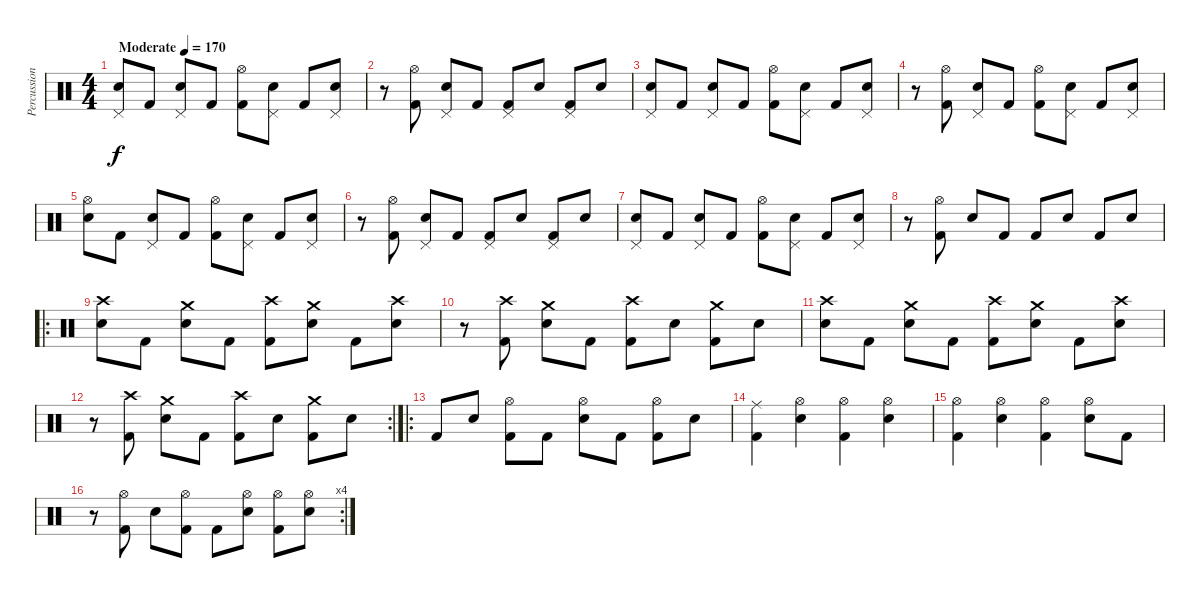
\track ("Percussion" "Percussion") {instrument percussion}
\staff {score}
\articulation defaults
\ts (4 4)
\tempo (170 "Moderate")
\clef neutral
\ks c
("Pedal Hi-Hat (hit)" "Snare (hit) 2").8{dy f volume 11} "Kick (hit) 2".8 ("Pedal Hi-Hat (hit)" "Snare (hit) 2").8 "Kick (hit) 2".8 ("Hi-Hat (open)" "Kick (hit) 2").8 ("Pedal Hi-Hat (hit)" "Snare (hit) 2").8 "Kick (hit) 2".8 ("Pedal Hi-Hat (hit)" "Snare (hit) 2").8 |
r.8 ("Hi-Hat (open)" "Kick (hit) 2").8 ("Pedal Hi-Hat (hit)" "Snare (hit) 2").8 "Kick (hit) 2".8 ("Pedal Hi-Hat (hit)" "Kick (hit) 2").8 "Snare (hit) 2".8 ("Pedal Hi-Hat (hit)" "Kick (hit) 2").8 "Snare (hit) 2".8 |
("Pedal Hi-Hat (hit)" "Snare (hit) 2").8 "Kick (hit) 2".8 ("Pedal Hi-Hat (hit)" "Snare (hit) 2").8 "Kick (hit) 2".8 ("Hi-Hat (open)" "Kick (hit) 2").8 ("Pedal Hi-Hat (hit)" "Snare (hit) 2").8 "Kick (hit) 2".8 ("Pedal Hi-Hat (hit)" "Snare (hit) 2").8 |
r.8 ("Hi-Hat (open)" "Kick (hit) 2").8 ("Pedal Hi-Hat (hit)" "Snare (hit) 2").8 "Kick (hit) 2".8 ("Hi-Hat (open)" "Kick (hit) 2").8 ("Pedal Hi-Hat (hit)" "Snare (hit) 2").8 "Kick (hit) 2".8 ("Pedal Hi-Hat (hit)" "Snare (hit) 2").8 |
("Hi-Hat (open)" "Snare (hit) 2").8 "Kick (hit) 2".8 ("Pedal Hi-Hat (hit)" "Snare (hit) 2").8 "Kick (hit) 2".8 ("Hi-Hat (open)" "Kick (hit) 2").8 ("Pedal Hi-Hat (hit)" "Snare (hit) 2").8 "Kick (hit) 2".8 ("Pedal Hi-Hat (hit)" "Snare (hit) 2").8 |
r.8 ("Hi-Hat (open)" "Kick (hit) 2").8 ("Pedal Hi-Hat (hit)" "Snare (hit) 2").8 "Kick (hit) 2".8 ("Pedal Hi-Hat (hit)" "Kick (hit) 2").8 "Snare (hit) 2".8 ("Pedal Hi-Hat (hit)" "Kick (hit) 2").8 "Snare (hit) 2".8 |
("Pedal Hi-Hat (hit)" "Snare (hit) 2").8 "Kick (hit) 2".8 ("Pedal Hi-Hat (hit)" "Snare (hit) 2").8 "Kick (hit) 2".8 ("Hi-Hat (open)" "Kick (hit) 2").8 ("Pedal Hi-Hat (hit)" "Snare (hit) 2").8 "Kick (hit) 2".8 ("Pedal Hi-Hat (hit)" "Snare (hit) 2").8 |
r.8 ("Hi-Hat (open)" "Kick (hit) 2").8 "Snare (hit) 2".8 "Kick (hit) 2".8 "Kick (hit) 2".8 "Snare (hit) 2".8 "Kick (hit) 2".8 "Snare (hit) 2".8 |
\ro
("Crash high (hit)" "Snare (hit) 2").8{volume 16} "Kick (hit) 2".8 ("Crash medium (hit)" "Snare (hit) 2").8 "Kick (hit) 2".8 ("Crash high (hit)" "Kick (hit) 2").8 ("Crash medium (hit)" "Snare (hit) 2").8 "Kick (hit) 2".8 ("Crash high (hit)" "Snare (hit) 2").8 |
r.8 ("Crash high (hit)" "Kick (hit) 2").8 ("Crash medium (hit)" "Snare (hit) 2").8 "Kick (hit) 2".8 ("Crash high (hit)" "Kick (hit) 2").8 "Snare (hit) 2".8 ("Crash medium (hit)" "Kick (hit) 2").8 "Snare (hit) 2".8 |
("Crash high (hit)" "Snare (hit) 2").8{volume 16} "Kick (hit) 2".8 ("Crash medium (hit)" "Snare (hit) 2").8 "Kick (hit) 2".8 ("Crash high (hit)" "Kick (hit) 2").8 ("Crash medium (hit)" "Snare (hit) 2").8 "Kick (hit) 2".8 ("Crash high (hit)" "Snare (hit) 2").8 |
\rc 2
r.8 ("Crash high (hit)" "Kick (hit) 2").8 ("Crash medium (hit)" "Snare (hit) 2").8 "Kick (hit) 2".8 ("Crash high (hit)" "Kick (hit) 2").8 "Snare (hit) 2".8 ("Crash medium (hit)" "Kick (hit) 2").8 "Snare (hit) 2".8 |
\ro "Kick (hit) 2".8 "Snare (hit) 2".8
("Hi-Hat (open)" "Kick (hit) 2").8 "Kick (hit) 2".8 ("Hi-Hat (open)" "Snare (hit) 2").8 "Kick (hit) 2".8 ("Hi-Hat (open)" "Kick (hit) 2").8 "Snare (hit) 2".8 |
("Ride (middle)" "Kick (hit) 2").4 ("Hi-Hat (open)" "Snare (hit) 2").4 ("Hi-Hat (open)" "Kick (hit) 2").4 ("Hi-Hat (open)" "Snare (hit) 2").4 |
("Hi-Hat (open)" "Kick (hit) 2").4 ("Hi-Hat (open)" "Snare (hit) 2").4 ("Hi-Hat (open)" "Kick (hit) 2").4 ("Hi-Hat (open)" "Snare (hit) 2").8 "Kick (hit) 2".8 |
\rc 4
r.8 ("Hi-Hat (open)" "Kick (hit) 2").8 "Snare (hit) 2".8 ("Hi-Hat (open)" "Kick (hit) 2").8 "Kick (hit) 2".8 ("Hi-Hat (open)" "Snare (hit) 2").8 ("Hi-Hat (open)" "Kick (hit) 2").8 ("Hi-Hat (open)" "Snare (hit) 2").8
